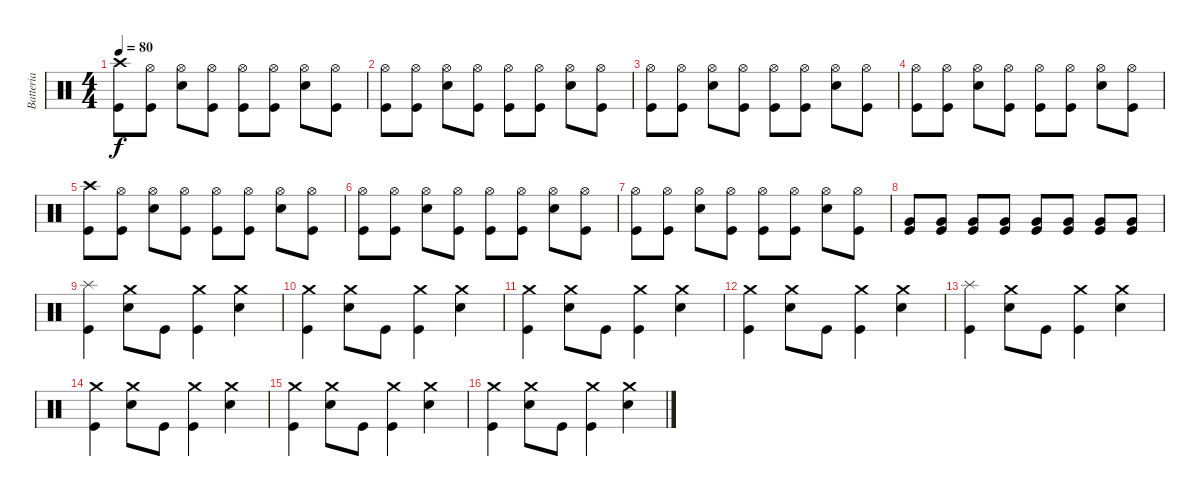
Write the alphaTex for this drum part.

\track ("Batteria" "Batteria") {instrument percussion}
\staff {score}
\articulation defaults
\ts (4 4)
\tempo 80
\clef neutral
\ks c
("Crash high (hit)" "Kick (hit)").8{dy f} ("Hi-Hat (open)" "Kick (hit)").8 ("Hi-Hat (open)" "Electric Snare (hit)").8 ("Hi-Hat (open)" "Kick (hit)").8 ("Hi-Hat (open)" "Kick (hit)").8 ("Hi-Hat (open)" "Kick (hit)").8 ("Hi-Hat (open)" "Electric Snare (hit)").8 ("Hi-Hat (open)" "Kick (hit)").8 |
("Hi-Hat (open)" "Kick (hit)").8 ("Hi-Hat (open)" "Kick (hit)").8 ("Hi-Hat (open)" "Electric Snare (hit)").8 ("Hi-Hat (open)" "Kick (hit)").8 ("Hi-Hat (open)" "Kick (hit)").8 ("Hi-Hat (open)" "Kick (hit)").8 ("Hi-Hat (open)" "Electric Snare (hit)").8 ("Hi-Hat (open)" "Kick (hit)").8 |
("Hi-Hat (open)" "Kick (hit)").8 ("Hi-Hat (open)" "Kick (hit)").8 ("Hi-Hat (open)" "Electric Snare (hit)").8 ("Hi-Hat (open)" "Kick (hit)").8 ("Hi-Hat (open)" "Kick (hit)").8 ("Hi-Hat (open)" "Kick (hit)").8 ("Hi-Hat (open)" "Electric Snare (hit)").8 ("Hi-Hat (open)" "Kick (hit)").8 |
("Hi-Hat (open)" "Kick (hit)").8 ("Hi-Hat (open)" "Kick (hit)").8 ("Hi-Hat (open)" "Electric Snare (hit)").8 ("Hi-Hat (open)" "Kick (hit)").8 ("Hi-Hat (open)" "Kick (hit)").8 ("Hi-Hat (open)" "Kick (hit)").8 ("Hi-Hat (open)" "Electric Snare (hit)").8 ("Hi-Hat (open)" "Kick (hit)").8 |
("Crash high (hit)" "Kick (hit)").8 ("Hi-Hat (open)" "Kick (hit)").8 ("Hi-Hat (open)" "Electric Snare (hit)").8 ("Hi-Hat (open)" "Kick (hit)").8 ("Hi-Hat (open)" "Kick (hit)").8 ("Hi-Hat (open)" "Kick (hit)").8 ("Hi-Hat (open)" "Electric Snare (hit)").8 ("Hi-Hat (open)" "Kick (hit)").8 |
("Hi-Hat (open)" "Kick (hit)").8 ("Hi-Hat (open)" "Kick (hit)").8 ("Hi-Hat (open)" "Electric Snare (hit)").8 ("Hi-Hat (open)" "Kick (hit)").8 ("Hi-Hat (open)" "Kick (hit)").8 ("Hi-Hat (open)" "Kick (hit)").8 ("Hi-Hat (open)" "Electric Snare (hit)").8 ("Hi-Hat (open)" "Kick (hit)").8 |
("Hi-Hat (open)" "Kick (hit)").8 ("Hi-Hat (open)" "Kick (hit)").8 ("Hi-Hat (open)" "Electric Snare (hit)").8 ("Hi-Hat (open)" "Kick (hit)").8 ("Hi-Hat (open)" "Kick (hit)").8 ("Hi-Hat (open)" "Kick (hit)").8 ("Hi-Hat (open)" "Electric Snare (hit)").8 ("Hi-Hat (open)" "Kick (hit)").8 |
("Very Low Tom (hit)" "Kick (hit)").8 ("Very Low Tom (hit)" "Kick (hit)").8 ("Very Low Tom (hit)" "Kick (hit)").8 ("Very Low Tom (hit)" "Kick (hit)").8 ("Very Low Tom (hit)" "Kick (hit)").8 ("Very Low Tom (hit)" "Kick (hit)").8 ("Very Low Tom (hit)" "Kick (hit)").8 ("Very Low Tom (hit)" "Kick (hit)").8 |
("Splash (hit)" "Kick (hit)").4 ("Crash medium (hit)" "Electric Snare (hit)").8 "Kick (hit)".8 ("Kick (hit)" "Crash medium (hit)").4 ("Crash medium (hit)" "Electric Snare (hit)").4 |
("Crash medium (hit)" "Kick (hit)").4 ("Crash medium (hit)" "Electric Snare (hit)").8 "Kick (hit)".8 ("Crash medium (hit)" "Kick (hit)").4 ("Crash medium (hit)" "Electric Snare (hit)").4 |
("Crash medium (hit)" "Kick (hit)").4 ("Crash medium (hit)" "Electric Snare (hit)").8 "Kick (hit)".8 ("Crash medium (hit)" "Kick (hit)").4 ("Crash medium (hit)" "Electric Snare (hit)").4 |
("Crash medium (hit)" "Kick (hit)").4 ("Crash medium (hit)" "Electric Snare (hit)").8 "Kick (hit)".8 ("Crash medium (hit)" "Kick (hit)").4 ("Crash medium (hit)" "Electric Snare (hit)").4 |
("Splash (hit)" "Kick (hit)").4 ("Crash medium (hit)" "Electric Snare (hit)").8 "Kick (hit)".8 ("Kick (hit)" "Crash medium (hit)").4 ("Crash medium (hit)" "Electric Snare (hit)").4 |
("Crash medium (hit)" "Kick (hit)").4 ("Crash medium (hit)" "Electric Snare (hit)").8 "Kick (hit)".8 ("Crash medium (hit)" "Kick (hit)").4 ("Crash medium (hit)" "Electric Snare (hit)").4 |
("Crash medium (hit)" "Kick (hit)").4 ("Crash medium (hit)" "Electric Snare (hit)").8 "Kick (hit)".8 ("Kick (hit)" "Crash medium (hit)").4 ("Crash medium (hit)" "Electric Snare (hit)").4 |
("Crash medium (hit)" "Kick (hit)").4 ("Crash medium (hit)" "Electric Snare (hit)").8 "Kick (hit)".8 ("Crash medium (hit)" "Kick (hit)").4 ("Crash medium (hit)" "Electric Snare (hit)").4
